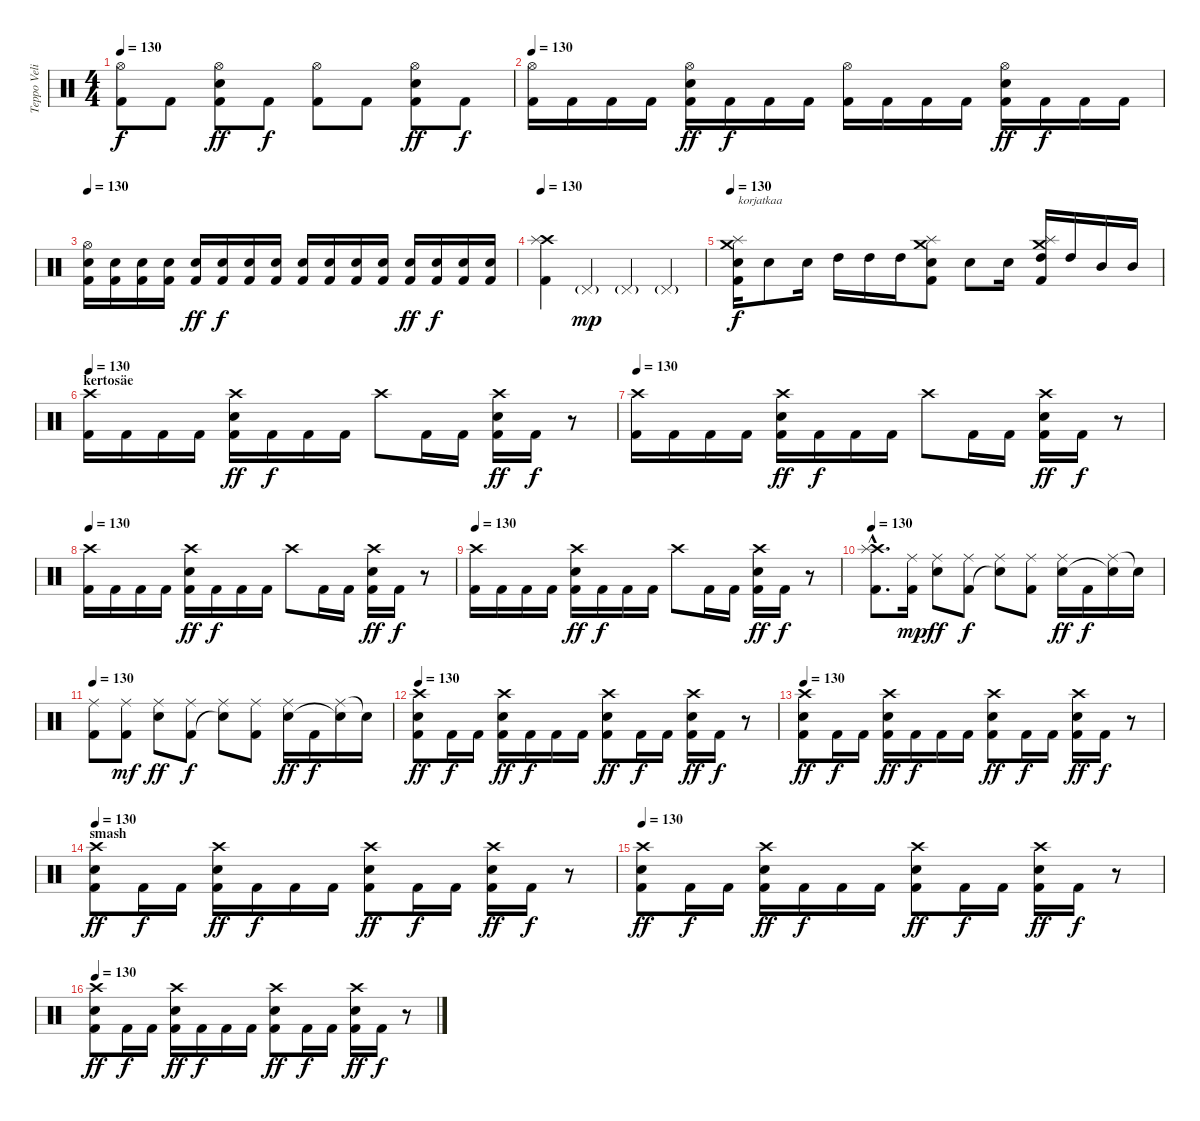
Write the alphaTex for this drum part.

\track ("Teppo Velin" "Teppo Veli") {instrument percussion}
\staff {score}
\articulation defaults
\ts (4 4)
\tempo 130
\clef neutral
\ks c
("Hi-Hat (open)" "Kick (hit) 2").8{dy f} "Kick (hit) 2".8 ("Hi-Hat (open)" "Electric Snare (hit)" "Kick (hit) 2").8{dy ff} "Kick (hit) 2".8{dy f} ("Hi-Hat (open)" "Kick (hit) 2").8 "Kick (hit) 2".8 ("Hi-Hat (open)" "Electric Snare (hit)" "Kick (hit) 2").8{dy ff} "Kick (hit) 2".8{dy f} |
\tempo 130
("Hi-Hat (open)" "Kick (hit) 2").16 "Kick (hit) 2".16 "Kick (hit) 2".16 "Kick (hit) 2".16 ("Hi-Hat (open)" "Electric Snare (hit)" "Kick (hit) 2").16{dy ff} "Kick (hit) 2".16{dy f} "Kick (hit) 2".16 "Kick (hit) 2".16 ("Hi-Hat (open)" "Kick (hit) 2").16 "Kick (hit) 2".16 "Kick (hit) 2".16 "Kick (hit) 2".16 ("Hi-Hat (open)" "Electric Snare (hit)" "Kick (hit) 2").16{dy ff} "Kick (hit) 2".16{dy f} "Kick (hit) 2".16 "Kick (hit) 2".16 |
\tempo 130
("Hi-Hat (open)" "Electric Snare (hit)" "Kick (hit) 2").16 ("Electric Snare (hit)" "Kick (hit) 2").16 ("Electric Snare (hit)" "Kick (hit) 2").16 ("Electric Snare (hit)" "Kick (hit) 2").16 ("Electric Snare (hit)" "Kick (hit) 2").16{dy ff} ("Electric Snare (hit)" "Kick (hit) 2").16{dy f} ("Electric Snare (hit)" "Kick (hit) 2").16 ("Electric Snare (hit)" "Kick (hit) 2").16 ("Electric Snare (hit)" "Kick (hit) 2").16 ("Electric Snare (hit)" "Kick (hit) 2").16 ("Electric Snare (hit)" "Kick (hit) 2").16 ("Electric Snare (hit)" "Kick (hit) 2").16 ("Electric Snare (hit)" "Kick (hit) 2").16{dy ff} ("Electric Snare (hit)" "Kick (hit) 2").16{dy f} ("Electric Snare (hit)" "Kick (hit) 2").16 ("Electric Snare (hit)" "Kick (hit) 2").16 |
\tempo 130
("Crash high (hit)" "Splash (hit)" "Kick (hit) 2").4 "Pedal Hi-Hat (hit)"{g}.4{dy mp} "Pedal Hi-Hat (hit)"{g}.4 "Pedal Hi-Hat (hit)"{g}.4 |
\tempo 130
("Crash medium (hit)" "Splash (hit)" "Electric Snare (hit)" "Kick (hit) 2").16{txt "korjatkaa" dy f} "Electric Snare (hit)".8 "Electric Snare (hit)".16 "High Tom (hit)".16 "High Tom (hit)".16 "High Tom (hit)".16 ("Crash medium (hit)" "Splash (hit)" "Electric Snare (hit)" "Kick (hit) 2").8 "Electric Snare (hit)".8 "Electric Snare (hit)".16 ("Crash medium (hit)" "Splash (hit)" "High Tom (hit)" "Kick (hit) 2").16 "High Tom (hit)".16 "Mid Tom (hit)".16 "Mid Tom (hit)".16 |
\section ("" "kertosäe")
\tempo 130
("Crash high (hit)" "Kick (hit) 2").16 "Kick (hit) 2".16 "Kick (hit) 2".16 "Kick (hit) 2".16 ("Crash high (hit)" "Electric Snare (hit)" "Kick (hit) 2").16{dy ff} "Kick (hit) 2".16{dy f} "Kick (hit) 2".16 "Kick (hit) 2".16 "Crash high (hit)".8 "Kick (hit) 2".16 "Kick (hit) 2".16 ("Crash high (hit)" "Electric Snare (hit)" "Kick (hit) 2").16{dy ff} "Kick (hit) 2".16{dy f} r.8 |
\tempo 130
("Crash high (hit)" "Kick (hit) 2").16 "Kick (hit) 2".16 "Kick (hit) 2".16 "Kick (hit) 2".16 ("Crash high (hit)" "Electric Snare (hit)" "Kick (hit) 2").16{dy ff} "Kick (hit) 2".16{dy f} "Kick (hit) 2".16 "Kick (hit) 2".16 "Crash high (hit)".8 "Kick (hit) 2".16 "Kick (hit) 2".16 ("Crash high (hit)" "Electric Snare (hit)" "Kick (hit) 2").16{dy ff} "Kick (hit) 2".16{dy f} r.8 |
\tempo 130
("Crash high (hit)" "Kick (hit) 2").16 "Kick (hit) 2".16 "Kick (hit) 2".16 "Kick (hit) 2".16 ("Crash high (hit)" "Electric Snare (hit)" "Kick (hit) 2").16{dy ff} "Kick (hit) 2".16{dy f} "Kick (hit) 2".16 "Kick (hit) 2".16 "Crash high (hit)".8 "Kick (hit) 2".16 "Kick (hit) 2".16 ("Crash high (hit)" "Electric Snare (hit)" "Kick (hit) 2").16{dy ff} "Kick (hit) 2".16{dy f} r.8 |
\tempo 130
("Crash high (hit)" "Kick (hit) 2").16 "Kick (hit) 2".16 "Kick (hit) 2".16 "Kick (hit) 2".16 ("Crash high (hit)" "Electric Snare (hit)" "Kick (hit) 2").16{dy ff} "Kick (hit) 2".16{dy f} "Kick (hit) 2".16 "Kick (hit) 2".16 "Crash high (hit)".8 "Kick (hit) 2".16 "Kick (hit) 2".16 ("Crash high (hit)" "Electric Snare (hit)" "Kick (hit) 2").16{dy ff} "Kick (hit) 2".16{dy f} r.8 |
\tempo 130
("Crash high (hit)"{hac} "Splash (hit)"{hac} "Kick (hit) 2"{hac}).8{d} ("Ride (middle)" "Kick (hit) 2").16{dy mp} ("Ride (middle)" "Electric Snare (hit)").8{dy ff} ("Ride (middle)" "Kick (hit) 2").8{dy f} ("Ride (middle)" "Snare (hit)"{t}).8 ("Ride (middle)" "Kick (hit) 2").8 ("Ride (middle)" "Electric Snare (hit)").16{dy ff} "Kick (hit) 2".16{dy f} ("Ride (middle)" "Snare (hit)"{t}).16 "Snare (hit)"{t}.16 |
\tempo 130
("Ride (middle)" "Kick (hit) 2").8 ("Ride (middle)" "Kick (hit) 2").8{dy mf} ("Ride (middle)" "Electric Snare (hit)").8{dy ff} ("Ride (middle)" "Kick (hit) 2").8{dy f} ("Ride (middle)" "Snare (hit)"{t}).8 ("Ride (middle)" "Kick (hit) 2").8 ("Ride (middle)" "Electric Snare (hit)").16{dy ff} "Kick (hit) 2".16{dy f} ("Ride (middle)" "Snare (hit)"{t}).16 "Snare (hit)"{t}.16 |
\tempo 130
("Crash high (hit)" "Electric Snare (hit)" "Kick (hit) 2").8{dy ff} "Kick (hit) 2".16{dy f} "Kick (hit) 2".16 ("Crash high (hit)" "Electric Snare (hit)" "Kick (hit) 2").16{dy ff} "Kick (hit) 2".16{dy f} "Kick (hit) 2".16 "Kick (hit) 2".16 ("Crash high (hit)" "Electric Snare (hit)" "Kick (hit) 2").8{dy ff} "Kick (hit) 2".16{dy f} "Kick (hit) 2".16 ("Crash high (hit)" "Electric Snare (hit)" "Kick (hit) 2").16{dy ff} "Kick (hit) 2".16{dy f} r.8 |
\tempo 130
("Crash high (hit)" "Electric Snare (hit)" "Kick (hit) 2").8{dy ff} "Kick (hit) 2".16{dy f} "Kick (hit) 2".16 ("Crash high (hit)" "Electric Snare (hit)" "Kick (hit) 2").16{dy ff} "Kick (hit) 2".16{dy f} "Kick (hit) 2".16 "Kick (hit) 2".16 ("Crash high (hit)" "Electric Snare (hit)" "Kick (hit) 2").8{dy ff} "Kick (hit) 2".16{dy f} "Kick (hit) 2".16 ("Crash high (hit)" "Electric Snare (hit)" "Kick (hit) 2").16{dy ff} "Kick (hit) 2".16{dy f} r.8 |
\section ("" "smash")
\tempo 130
("Crash high (hit)" "Electric Snare (hit)" "Kick (hit) 2").8{dy ff} "Kick (hit) 2".16{dy f} "Kick (hit) 2".16 ("Crash high (hit)" "Electric Snare (hit)" "Kick (hit) 2").16{dy ff} "Kick (hit) 2".16{dy f} "Kick (hit) 2".16 "Kick (hit) 2".16 ("Crash high (hit)" "Electric Snare (hit)" "Kick (hit) 2").8{dy ff} "Kick (hit) 2".16{dy f} "Kick (hit) 2".16 ("Crash high (hit)" "Electric Snare (hit)" "Kick (hit) 2").16{dy ff} "Kick (hit) 2".16{dy f} r.8 |
\tempo 130
("Crash high (hit)" "Electric Snare (hit)" "Kick (hit) 2").8{dy ff} "Kick (hit) 2".16{dy f} "Kick (hit) 2".16 ("Crash high (hit)" "Electric Snare (hit)" "Kick (hit) 2").16{dy ff} "Kick (hit) 2".16{dy f} "Kick (hit) 2".16 "Kick (hit) 2".16 ("Crash high (hit)" "Electric Snare (hit)" "Kick (hit) 2").8{dy ff} "Kick (hit) 2".16{dy f} "Kick (hit) 2".16 ("Crash high (hit)" "Electric Snare (hit)" "Kick (hit) 2").16{dy ff} "Kick (hit) 2".16{dy f} r.8 |
\tempo 130
("Crash high (hit)" "Electric Snare (hit)" "Kick (hit) 2").8{dy ff} "Kick (hit) 2".16{dy f} "Kick (hit) 2".16 ("Crash high (hit)" "Electric Snare (hit)" "Kick (hit) 2").16{dy ff} "Kick (hit) 2".16{dy f} "Kick (hit) 2".16 "Kick (hit) 2".16 ("Crash high (hit)" "Electric Snare (hit)" "Kick (hit) 2").8{dy ff} "Kick (hit) 2".16{dy f} "Kick (hit) 2".16 ("Crash high (hit)" "Electric Snare (hit)" "Kick (hit) 2").16{dy ff} "Kick (hit) 2".16{dy f} r.8
